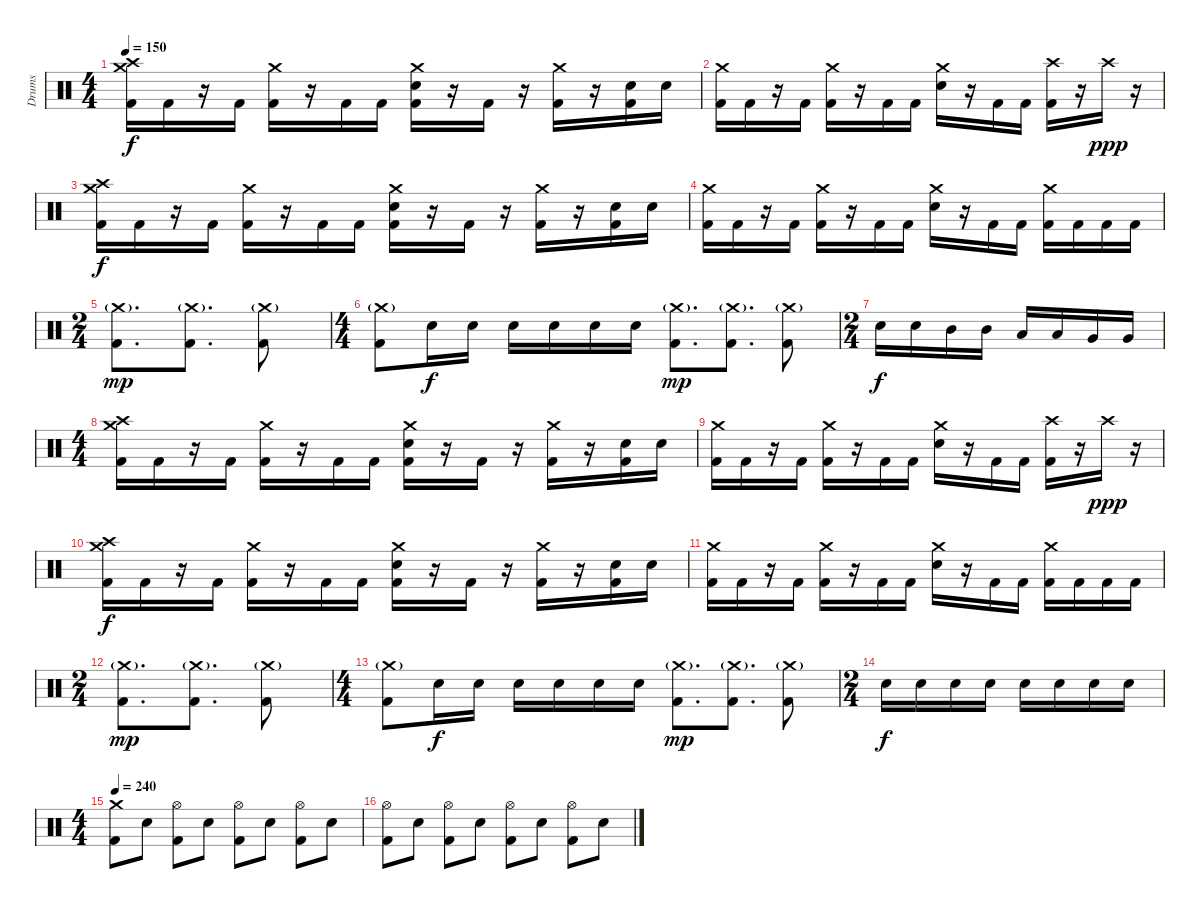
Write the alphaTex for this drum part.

\track ("Drums" "Drums") {instrument percussion}
\staff {score}
\articulation defaults
\ts (4 4)
\tempo 150
\clef neutral
\ks c
("Crash high (hit)" "Crash medium (hit)" "Kick (hit) 2").16{dy f} "Kick (hit) 2".16 r.16 "Kick (hit) 2".16 ("Crash medium (hit)" "Kick (hit) 2").16 r.16 "Kick (hit) 2".16 "Kick (hit) 2".16 ("Crash medium (hit)" "Electric Snare (hit)" "Kick (hit) 2").16 r.16 "Kick (hit) 2".16 r.16 ("Crash medium (hit)" "Kick (hit) 2").16 r.16 ("Electric Snare (hit)" "Kick (hit) 2").16 "Electric Snare (hit)".16 |
("Crash medium (hit)" "Kick (hit) 2").16 "Kick (hit) 2".16 r.16 "Kick (hit) 2".16 ("Crash medium (hit)" "Kick (hit) 2").16 r.16 "Kick (hit) 2".16 "Kick (hit) 2".16 ("Crash medium (hit)" "Electric Snare (hit)").16 r.16 "Kick (hit) 2".16 "Kick (hit) 2".16 ("Crash high (hit)" "Kick (hit) 2").16 r.16 "Crash high (hit)".16{dy ppp} r.16 |
("Crash high (hit)" "Crash medium (hit)" "Kick (hit) 2").16{dy f} "Kick (hit) 2".16 r.16 "Kick (hit) 2".16 ("Crash medium (hit)" "Kick (hit) 2").16 r.16 "Kick (hit) 2".16 "Kick (hit) 2".16 ("Crash medium (hit)" "Electric Snare (hit)" "Kick (hit) 2").16 r.16 "Kick (hit) 2".16 r.16 ("Crash medium (hit)" "Kick (hit) 2").16 r.16 ("Electric Snare (hit)" "Kick (hit) 2").16 "Electric Snare (hit)".16 |
("Crash medium (hit)" "Kick (hit) 2").16 "Kick (hit) 2".16 r.16 "Kick (hit) 2".16 ("Crash medium (hit)" "Kick (hit) 2").16 r.16 "Kick (hit) 2".16 "Kick (hit) 2".16 ("Crash medium (hit)" "Electric Snare (hit)").16 r.16 "Kick (hit) 2".16 "Kick (hit) 2".16 ("Crash medium (hit)" "Kick (hit) 2").16 "Kick (hit) 2".16 "Kick (hit) 2".16 "Kick (hit) 2".16 |
\ts (2 4)
("Crash medium (hit)"{g} "Kick (hit) 2").8{d dy mp} ("Crash medium (hit)"{g} "Kick (hit) 2").8{d} ("Crash medium (hit)"{g} "Kick (hit) 2").8 |
\ts (4 4)
("Crash medium (hit)"{g} "Kick (hit) 2").8 "Electric Snare (hit)".16{dy f} "Electric Snare (hit)".16 "Electric Snare (hit)".16 "Electric Snare (hit)".16 "Electric Snare (hit)".16 "Electric Snare (hit)".16 ("Crash medium (hit)"{g} "Kick (hit) 2").8{d dy mp} ("Crash medium (hit)"{g} "Kick (hit) 2").8{d} ("Crash medium (hit)"{g} "Kick (hit) 2").8 |
\ts (2 4)
"Electric Snare (hit)".16{dy f} "Electric Snare (hit)".16 "Mid Tom (hit)".16 "Mid Tom (hit)".16 "Low Tom (hit)".16 "Low Tom (hit)".16 "Very Low Tom (hit)".16 "Very Low Tom (hit)".16 |
\ts (4 4)
("Crash high (hit)" "Crash medium (hit)" "Kick (hit) 2").16 "Kick (hit) 2".16 r.16 "Kick (hit) 2".16 ("Crash medium (hit)" "Kick (hit) 2").16 r.16 "Kick (hit) 2".16 "Kick (hit) 2".16 ("Crash medium (hit)" "Electric Snare (hit)" "Kick (hit) 2").16 r.16 "Kick (hit) 2".16 r.16 ("Crash medium (hit)" "Kick (hit) 2").16 r.16 ("Electric Snare (hit)" "Kick (hit) 2").16 "Electric Snare (hit)".16 |
("Crash medium (hit)" "Kick (hit) 2").16 "Kick (hit) 2".16 r.16 "Kick (hit) 2".16 ("Crash medium (hit)" "Kick (hit) 2").16 r.16 "Kick (hit) 2".16 "Kick (hit) 2".16 ("Crash medium (hit)" "Electric Snare (hit)").16 r.16 "Kick (hit) 2".16 "Kick (hit) 2".16 ("Crash high (hit)" "Kick (hit) 2").16 r.16 "Crash high (hit)".16{dy ppp} r.16 |
("Crash high (hit)" "Crash medium (hit)" "Kick (hit) 2").16{dy f} "Kick (hit) 2".16 r.16 "Kick (hit) 2".16 ("Crash medium (hit)" "Kick (hit) 2").16 r.16 "Kick (hit) 2".16 "Kick (hit) 2".16 ("Crash medium (hit)" "Electric Snare (hit)" "Kick (hit) 2").16 r.16 "Kick (hit) 2".16 r.16 ("Crash medium (hit)" "Kick (hit) 2").16 r.16 ("Electric Snare (hit)" "Kick (hit) 2").16 "Electric Snare (hit)".16 |
("Crash medium (hit)" "Kick (hit) 2").16 "Kick (hit) 2".16 r.16 "Kick (hit) 2".16 ("Crash medium (hit)" "Kick (hit) 2").16 r.16 "Kick (hit) 2".16 "Kick (hit) 2".16 ("Crash medium (hit)" "Electric Snare (hit)").16 r.16 "Kick (hit) 2".16 "Kick (hit) 2".16 ("Crash medium (hit)" "Kick (hit) 2").16 "Kick (hit) 2".16 "Kick (hit) 2".16 "Kick (hit) 2".16 |
\ts (2 4)
("Crash medium (hit)"{g} "Kick (hit) 2").8{d dy mp} ("Crash medium (hit)"{g} "Kick (hit) 2").8{d} ("Crash medium (hit)"{g} "Kick (hit) 2").8 |
\ts (4 4)
("Crash medium (hit)"{g} "Kick (hit) 2").8 "Electric Snare (hit)".16{dy f} "Electric Snare (hit)".16 "Electric Snare (hit)".16 "Electric Snare (hit)".16 "Electric Snare (hit)".16 "Electric Snare (hit)".16 ("Crash medium (hit)"{g} "Kick (hit) 2").8{d dy mp} ("Crash medium (hit)"{g} "Kick (hit) 2").8{d} ("Crash medium (hit)"{g} "Kick (hit) 2").8 |
\ts (2 4)
"Electric Snare (hit)".16{dy f} "Electric Snare (hit)".16 "Electric Snare (hit)".16 "Electric Snare (hit)".16 "Electric Snare (hit)".16 "Electric Snare (hit)".16 "Electric Snare (hit)".16 "Electric Snare (hit)".16 |
\ts (4 4)
\tempo 240
("Crash medium (hit)" "Kick (hit) 2").8 "Electric Snare (hit)".8 ("Hi-Hat (open)" "Kick (hit) 2").8 "Electric Snare (hit)".8 ("Hi-Hat (open)" "Kick (hit) 2").8 "Electric Snare (hit)".8 ("Hi-Hat (open)" "Kick (hit) 2").8 "Electric Snare (hit)".8 |
("Hi-Hat (open)" "Kick (hit) 2").8 "Electric Snare (hit)".8 ("Hi-Hat (open)" "Kick (hit) 2").8 "Electric Snare (hit)".8 ("Hi-Hat (open)" "Kick (hit) 2").8 "Electric Snare (hit)".8 ("Hi-Hat (open)" "Kick (hit) 2").8 "Electric Snare (hit)".8
